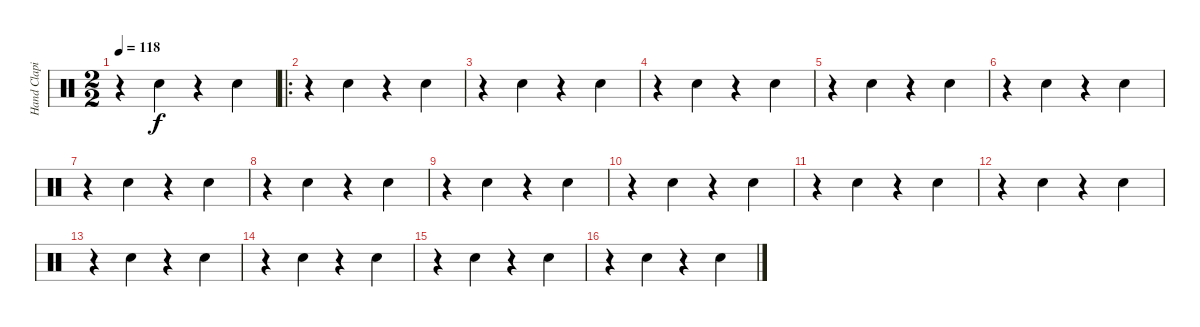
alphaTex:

\track ("Hand Claping" "Hand Clapi") {instrument percussion}
\staff {score}
\articulation defaults
\ts (2 2)
\tempo 118
\clef neutral
\ks c
r.4{dy f} "Hand Clap (hit)".4 r.4 "Hand Clap (hit)".4 |
\ro
r.4 "Hand Clap (hit)".4 r.4 "Hand Clap (hit)".4 |
r.4 "Hand Clap (hit)".4 r.4 "Hand Clap (hit)".4 |
r.4 "Hand Clap (hit)".4 r.4 "Hand Clap (hit)".4 |
r.4 "Hand Clap (hit)".4 r.4 "Hand Clap (hit)".4 |
r.4 "Hand Clap (hit)".4 r.4 "Hand Clap (hit)".4 |
r.4 "Hand Clap (hit)".4 r.4 "Hand Clap (hit)".4 |
r.4 "Hand Clap (hit)".4 r.4 "Hand Clap (hit)".4 |
r.4 "Hand Clap (hit)".4 r.4 "Hand Clap (hit)".4 |
r.4 "Hand Clap (hit)".4 r.4 "Hand Clap (hit)".4 |
r.4 "Hand Clap (hit)".4 r.4 "Hand Clap (hit)".4 |
r.4 "Hand Clap (hit)".4 r.4 "Hand Clap (hit)".4 |
r.4 "Hand Clap (hit)".4 r.4 "Hand Clap (hit)".4 |
r.4 "Hand Clap (hit)".4 r.4 "Hand Clap (hit)".4 |
r.4 "Hand Clap (hit)".4 r.4 "Hand Clap (hit)".4 |
r.4 "Hand Clap (hit)".4 r.4 "Hand Clap (hit)".4
